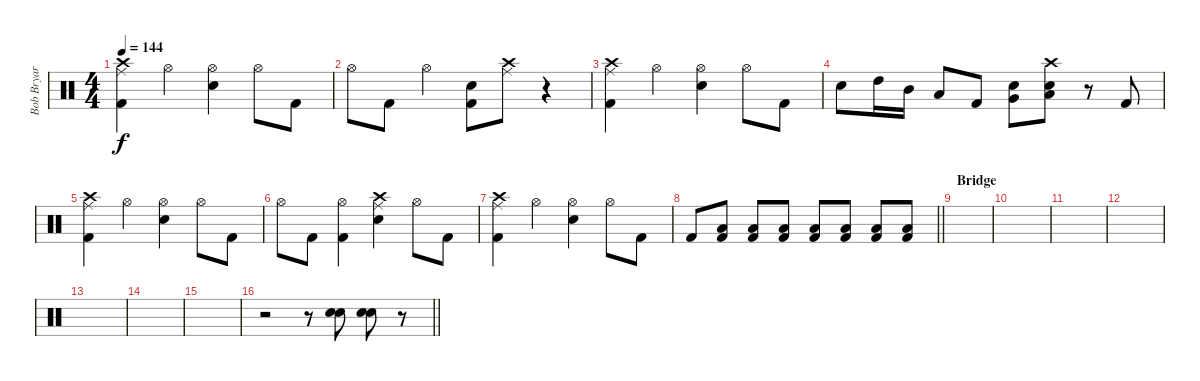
\track ("Bob Bryar" "Bob Bryar") {instrument percussion}
\staff {score}
\articulation defaults
\ts (4 4)
\tempo 144
\clef neutral
\ks c
("Crash high (hit)" "Ride (middle)" "Kick (hit) 2").4{dy f} "Hi-Hat (open)".4 ("Hi-Hat (open)" "Snare (hit) 2").4 "Hi-Hat (open)".8 "Kick (hit) 2".8 |
"Hi-Hat (open)".8 "Kick (hit) 2".8 "Hi-Hat (open)".4 ("Kick (hit) 2" "Snare (hit) 2").8 ("Crash high (hit)" "Ride (middle)").8 r.4 |
("Crash high (hit)" "Ride (middle)" "Kick (hit) 2").4 "Hi-Hat (open)".4 ("Hi-Hat (open)" "Snare (hit) 2").4 "Hi-Hat (open)".8 "Kick (hit) 2".8 |
"Snare (hit) 2".8 "High Tom (hit)".16 "Mid Tom (hit)".16 "Low Tom (hit)".8 "Kick (hit) 2".8 ("Snare (hit) 2" "Very Low Tom (hit)").8 ("Snare (hit) 2" "Low Floor Tom (hit)" "Crash high (hit)").8 r.8 "Kick (hit) 2".8 |
("Crash high (hit)" "Ride (middle)" "Kick (hit) 2").4 "Hi-Hat (open)".4 ("Hi-Hat (open)" "Snare (hit) 2").4 "Hi-Hat (open)".8 "Kick (hit) 2".8 |
"Hi-Hat (open)".8 "Kick (hit) 2".8 ("Kick (hit) 2" "Hi-Hat (open)").4 ("Ride (middle)" "Snare (hit) 2" "Crash high (hit)").4 "Hi-Hat (open)".8 "Kick (hit) 2".8 |
("Crash high (hit)" "Ride (middle)" "Kick (hit) 2").4 "Hi-Hat (open)".4 ("Hi-Hat (open)" "Snare (hit) 2").4 "Hi-Hat (open)".8 "Kick (hit) 2".8 |
\barLineRight lightlight "Kick (hit) 2".8
("Kick (hit) 2" "Low Floor Tom (hit)").8 ("Low Floor Tom (hit)" "Kick (hit) 2").8 ("Low Floor Tom (hit)" "Kick (hit) 2").8 ("Kick (hit) 2" "Low Floor Tom (hit)").8 ("Low Floor Tom (hit)" "Kick (hit) 2").8 ("Low Floor Tom (hit)" "Kick (hit) 2").8 ("Low Floor Tom (hit)" "Kick (hit) 2").8 |
\section ("" "Bridge")
|
|
|
|
|
|
|
\barLineRight lightlight
r.2 r.8 ("Snare (hit) 2" "Snare (hit) 2").8 ("Snare (hit) 2" "Snare (hit) 2").8 r.8
